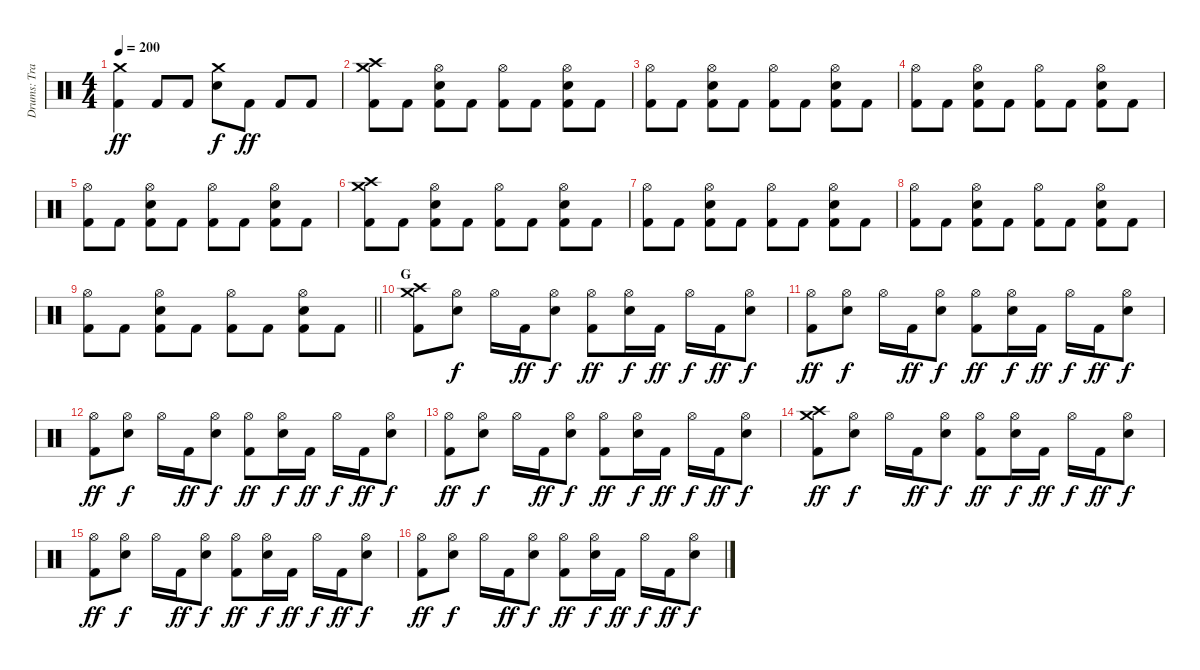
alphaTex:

\track ("Drums: Travis Clarke" "Drums: Tra") {instrument percussion}
\staff {score}
\articulation defaults
\ts (4 4)
\tempo 200
\clef neutral
\ks c
("Kick (hit) 2" "Crash medium (hit)").4{dy ff} "Kick (hit) 2".8 "Kick (hit) 2".8 ("Snare (hit) 2" "Crash medium (hit)").8{dy f} "Kick (hit) 2".8{dy ff} "Kick (hit) 2".8 "Kick (hit) 2".8 |
("Kick (hit) 2" "Crash high (hit)" "Crash medium (hit)").8 "Kick (hit) 2".8 ("Kick (hit) 2" "Snare (hit) 2" "Hi-Hat (open)").8 "Kick (hit) 2".8 ("Kick (hit) 2" "Hi-Hat (open)").8 "Kick (hit) 2".8 ("Kick (hit) 2" "Snare (hit) 2" "Hi-Hat (open)").8 "Kick (hit) 2".8 |
("Kick (hit) 2" "Hi-Hat (open)").8 "Kick (hit) 2".8 ("Kick (hit) 2" "Snare (hit) 2" "Hi-Hat (open)").8 "Kick (hit) 2".8 ("Kick (hit) 2" "Hi-Hat (open)").8 "Kick (hit) 2".8 ("Kick (hit) 2" "Snare (hit) 2" "Hi-Hat (open)").8 "Kick (hit) 2".8 |
("Kick (hit) 2" "Hi-Hat (open)").8 "Kick (hit) 2".8 ("Kick (hit) 2" "Snare (hit) 2" "Hi-Hat (open)").8 "Kick (hit) 2".8 ("Kick (hit) 2" "Hi-Hat (open)").8 "Kick (hit) 2".8 ("Kick (hit) 2" "Snare (hit) 2" "Hi-Hat (open)").8 "Kick (hit) 2".8 |
("Kick (hit) 2" "Hi-Hat (open)").8 "Kick (hit) 2".8 ("Kick (hit) 2" "Snare (hit) 2" "Hi-Hat (open)").8 "Kick (hit) 2".8 ("Kick (hit) 2" "Hi-Hat (open)").8 "Kick (hit) 2".8 ("Kick (hit) 2" "Snare (hit) 2" "Hi-Hat (open)").8 "Kick (hit) 2".8 |
("Kick (hit) 2" "Crash high (hit)" "Crash medium (hit)").8 "Kick (hit) 2".8 ("Kick (hit) 2" "Snare (hit) 2" "Hi-Hat (open)").8 "Kick (hit) 2".8 ("Kick (hit) 2" "Hi-Hat (open)").8 "Kick (hit) 2".8 ("Kick (hit) 2" "Snare (hit) 2" "Hi-Hat (open)").8 "Kick (hit) 2".8 |
("Kick (hit) 2" "Hi-Hat (open)").8 "Kick (hit) 2".8 ("Kick (hit) 2" "Snare (hit) 2" "Hi-Hat (open)").8 "Kick (hit) 2".8 ("Kick (hit) 2" "Hi-Hat (open)").8 "Kick (hit) 2".8 ("Kick (hit) 2" "Snare (hit) 2" "Hi-Hat (open)").8 "Kick (hit) 2".8 |
("Kick (hit) 2" "Hi-Hat (open)").8 "Kick (hit) 2".8 ("Kick (hit) 2" "Snare (hit) 2" "Hi-Hat (open)").8 "Kick (hit) 2".8 ("Kick (hit) 2" "Hi-Hat (open)").8 "Kick (hit) 2".8 ("Kick (hit) 2" "Snare (hit) 2" "Hi-Hat (open)").8 "Kick (hit) 2".8 |
\barLineRight lightlight
("Kick (hit) 2" "Hi-Hat (open)").8 "Kick (hit) 2".8 ("Kick (hit) 2" "Snare (hit) 2" "Hi-Hat (open)").8 "Kick (hit) 2".8 ("Kick (hit) 2" "Hi-Hat (open)").8 "Kick (hit) 2".8 ("Kick (hit) 2" "Snare (hit) 2" "Hi-Hat (open)").8 "Kick (hit) 2".8 |
\section ("" "G")
("Kick (hit) 2" "Crash high (hit)" "Crash medium (hit)").8 ("Snare (hit) 2" "Hi-Hat (open)").8{dy f} "Hi-Hat (open)".16 "Kick (hit) 2".16{dy ff} ("Snare (hit) 2" "Hi-Hat (open)").8{dy f} ("Kick (hit) 2" "Hi-Hat (open)").8{dy ff} ("Snare (hit) 2" "Hi-Hat (open)").16{dy f} "Kick (hit) 2".16{dy ff} "Hi-Hat (open)".16{dy f} "Kick (hit) 2".16{dy ff} ("Snare (hit) 2" "Hi-Hat (open)").8{dy f} |
("Kick (hit) 2" "Hi-Hat (open)").8{dy ff} ("Snare (hit) 2" "Hi-Hat (open)").8{dy f} "Hi-Hat (open)".16 "Kick (hit) 2".16{dy ff} ("Snare (hit) 2" "Hi-Hat (open)").8{dy f} ("Kick (hit) 2" "Hi-Hat (open)").8{dy ff} ("Snare (hit) 2" "Hi-Hat (open)").16{dy f} "Kick (hit) 2".16{dy ff} "Hi-Hat (open)".16{dy f} "Kick (hit) 2".16{dy ff} ("Snare (hit) 2" "Hi-Hat (open)").8{dy f} |
("Kick (hit) 2" "Hi-Hat (open)").8{dy ff} ("Snare (hit) 2" "Hi-Hat (open)").8{dy f} "Hi-Hat (open)".16 "Kick (hit) 2".16{dy ff} ("Snare (hit) 2" "Hi-Hat (open)").8{dy f} ("Kick (hit) 2" "Hi-Hat (open)").8{dy ff} ("Snare (hit) 2" "Hi-Hat (open)").16{dy f} "Kick (hit) 2".16{dy ff} "Hi-Hat (open)".16{dy f} "Kick (hit) 2".16{dy ff} ("Snare (hit) 2" "Hi-Hat (open)").8{dy f} |
("Kick (hit) 2" "Hi-Hat (open)").8{dy ff} ("Snare (hit) 2" "Hi-Hat (open)").8{dy f} "Hi-Hat (open)".16 "Kick (hit) 2".16{dy ff} ("Snare (hit) 2" "Hi-Hat (open)").8{dy f} ("Kick (hit) 2" "Hi-Hat (open)").8{dy ff} ("Snare (hit) 2" "Hi-Hat (open)").16{dy f} "Kick (hit) 2".16{dy ff} "Hi-Hat (open)".16{dy f} "Kick (hit) 2".16{dy ff} ("Snare (hit) 2" "Hi-Hat (open)").8{dy f} |
("Kick (hit) 2" "Crash high (hit)" "Crash medium (hit)").8{dy ff} ("Snare (hit) 2" "Hi-Hat (open)").8{dy f} "Hi-Hat (open)".16 "Kick (hit) 2".16{dy ff} ("Snare (hit) 2" "Hi-Hat (open)").8{dy f} ("Kick (hit) 2" "Hi-Hat (open)").8{dy ff} ("Snare (hit) 2" "Hi-Hat (open)").16{dy f} "Kick (hit) 2".16{dy ff} "Hi-Hat (open)".16{dy f} "Kick (hit) 2".16{dy ff} ("Snare (hit) 2" "Hi-Hat (open)").8{dy f} |
("Kick (hit) 2" "Hi-Hat (open)").8{dy ff} ("Snare (hit) 2" "Hi-Hat (open)").8{dy f} "Hi-Hat (open)".16 "Kick (hit) 2".16{dy ff} ("Snare (hit) 2" "Hi-Hat (open)").8{dy f} ("Kick (hit) 2" "Hi-Hat (open)").8{dy ff} ("Snare (hit) 2" "Hi-Hat (open)").16{dy f} "Kick (hit) 2".16{dy ff} "Hi-Hat (open)".16{dy f} "Kick (hit) 2".16{dy ff} ("Snare (hit) 2" "Hi-Hat (open)").8{dy f} |
("Kick (hit) 2" "Hi-Hat (open)").8{dy ff} ("Snare (hit) 2" "Hi-Hat (open)").8{dy f} "Hi-Hat (open)".16 "Kick (hit) 2".16{dy ff} ("Snare (hit) 2" "Hi-Hat (open)").8{dy f} ("Kick (hit) 2" "Hi-Hat (open)").8{dy ff} ("Snare (hit) 2" "Hi-Hat (open)").16{dy f} "Kick (hit) 2".16{dy ff} "Hi-Hat (open)".16{dy f} "Kick (hit) 2".16{dy ff} ("Snare (hit) 2" "Hi-Hat (open)").8{dy f}
